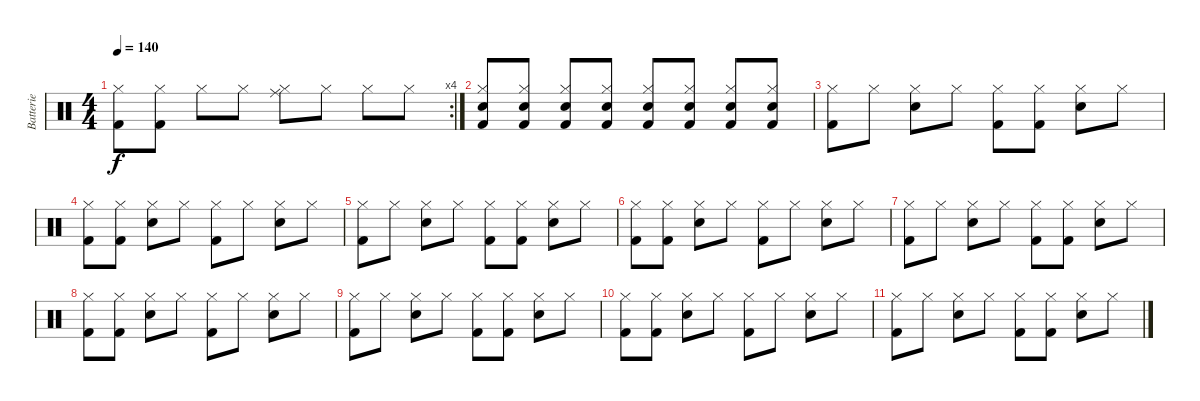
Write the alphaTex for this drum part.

\track ("Batterie" "Batterie") {instrument percussion}
\staff {score}
\articulation defaults
\rc 4
\ts (4 4)
\tempo 140
\clef neutral
\ks c
("Kick (hit) 2" "Hi-Hat (closed)").8{dy f} ("Kick (hit) 2" "Hi-Hat (closed)").8 "Hi-Hat (closed)".8 "Hi-Hat (closed)".8 ("Ride (middle)" "Hi-Hat (closed)").8 "Hi-Hat (closed)".8 "Hi-Hat (closed)".8 "Hi-Hat (closed)".8 |
("Kick (hit) 2" "Electric Snare (hit)" "Hi-Hat (closed)").8 ("Kick (hit) 2" "Electric Snare (hit)" "Hi-Hat (closed)").8 ("Kick (hit) 2" "Electric Snare (hit)" "Hi-Hat (closed)").8 ("Kick (hit) 2" "Electric Snare (hit)" "Hi-Hat (closed)").8 ("Kick (hit) 2" "Electric Snare (hit)" "Hi-Hat (closed)").8 ("Kick (hit) 2" "Electric Snare (hit)" "Hi-Hat (closed)").8 ("Kick (hit) 2" "Electric Snare (hit)" "Hi-Hat (closed)").8 ("Kick (hit) 2" "Electric Snare (hit)" "Hi-Hat (closed)").8 |
("Kick (hit) 2" "Hi-Hat (closed)").8 "Hi-Hat (closed)".8 ("Electric Snare (hit)" "Hi-Hat (closed)").8 "Hi-Hat (closed)".8 ("Kick (hit) 2" "Hi-Hat (closed)").8 ("Kick (hit) 2" "Hi-Hat (closed)").8 ("Electric Snare (hit)" "Hi-Hat (closed)").8 "Hi-Hat (closed)".8 |
("Kick (hit) 2" "Hi-Hat (closed)").8 ("Kick (hit) 2" "Hi-Hat (closed)").8 ("Electric Snare (hit)" "Hi-Hat (closed)").8 "Hi-Hat (closed)".8 ("Kick (hit) 2" "Hi-Hat (closed)").8 "Hi-Hat (closed)".8 ("Electric Snare (hit)" "Hi-Hat (closed)").8 "Hi-Hat (closed)".8 |
("Kick (hit) 2" "Hi-Hat (closed)").8 "Hi-Hat (closed)".8 ("Electric Snare (hit)" "Hi-Hat (closed)").8 "Hi-Hat (closed)".8 ("Kick (hit) 2" "Hi-Hat (closed)").8 ("Kick (hit) 2" "Hi-Hat (closed)").8 ("Electric Snare (hit)" "Hi-Hat (closed)").8 "Hi-Hat (closed)".8 |
("Kick (hit) 2" "Hi-Hat (closed)").8 ("Kick (hit) 2" "Hi-Hat (closed)").8 ("Electric Snare (hit)" "Hi-Hat (closed)").8 "Hi-Hat (closed)".8 ("Kick (hit) 2" "Hi-Hat (closed)").8 "Hi-Hat (closed)".8 ("Electric Snare (hit)" "Hi-Hat (closed)").8 "Hi-Hat (closed)".8 |
("Kick (hit) 2" "Hi-Hat (closed)").8 "Hi-Hat (closed)".8 ("Electric Snare (hit)" "Hi-Hat (closed)").8 "Hi-Hat (closed)".8 ("Kick (hit) 2" "Hi-Hat (closed)").8 ("Kick (hit) 2" "Hi-Hat (closed)").8 ("Electric Snare (hit)" "Hi-Hat (closed)").8 "Hi-Hat (closed)".8 |
("Kick (hit) 2" "Hi-Hat (closed)").8{volume 10} ("Kick (hit) 2" "Hi-Hat (closed)").8 ("Electric Snare (hit)" "Hi-Hat (closed)").8 "Hi-Hat (closed)".8 ("Kick (hit) 2" "Hi-Hat (closed)").8 "Hi-Hat (closed)".8 ("Electric Snare (hit)" "Hi-Hat (closed)").8 "Hi-Hat (closed)".8 |
("Kick (hit) 2" "Hi-Hat (closed)").8{volume 6} "Hi-Hat (closed)".8 ("Electric Snare (hit)" "Hi-Hat (closed)").8 "Hi-Hat (closed)".8 ("Kick (hit) 2" "Hi-Hat (closed)").8 ("Kick (hit) 2" "Hi-Hat (closed)").8 ("Electric Snare (hit)" "Hi-Hat (closed)").8 "Hi-Hat (closed)".8 |
("Kick (hit) 2" "Hi-Hat (closed)").8{volume 4} ("Kick (hit) 2" "Hi-Hat (closed)").8 ("Electric Snare (hit)" "Hi-Hat (closed)").8 "Hi-Hat (closed)".8 ("Kick (hit) 2" "Hi-Hat (closed)").8 "Hi-Hat (closed)".8 ("Electric Snare (hit)" "Hi-Hat (closed)").8 "Hi-Hat (closed)".8 |
("Kick (hit) 2" "Hi-Hat (closed)").8{volume 3} "Hi-Hat (closed)".8 ("Electric Snare (hit)" "Hi-Hat (closed)").8 "Hi-Hat (closed)".8 ("Kick (hit) 2" "Hi-Hat (closed)").8 ("Kick (hit) 2" "Hi-Hat (closed)").8 ("Electric Snare (hit)" "Hi-Hat (closed)").8 "Hi-Hat (closed)".8
